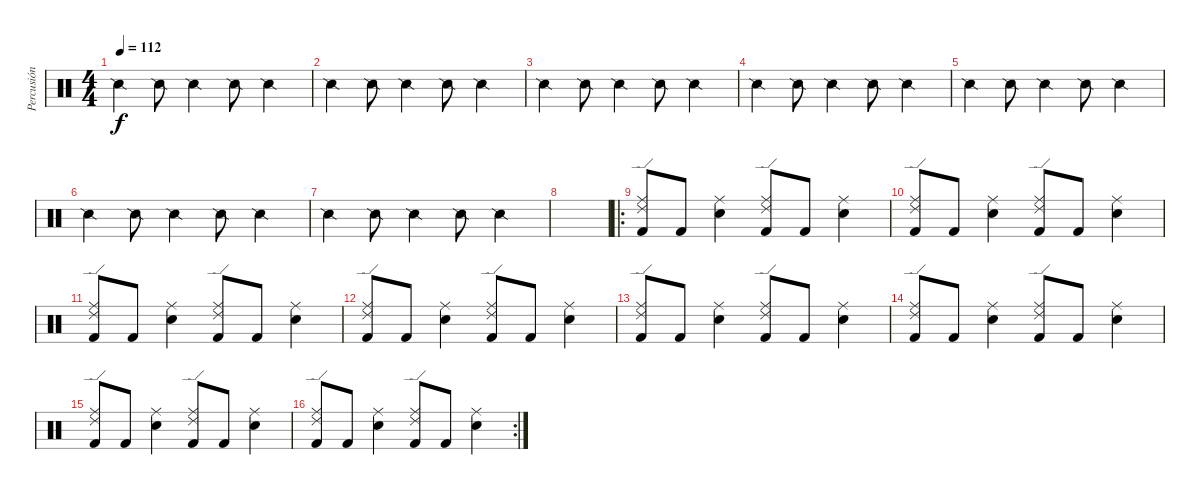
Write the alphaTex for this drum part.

\track ("Percusión" "Percusión") {instrument percussion}
\staff {score}
\articulation defaults
\ts (4 4)
\tempo 112
\clef neutral
\ks c "Snare (side stick) 2".4{dy f} "Snare (side stick) 2".8 "Snare (side stick) 2".4 "Snare (side stick) 2".8 "Snare (side stick) 2".4
|
"Snare (side stick) 2".4 "Snare (side stick) 2".8 "Snare (side stick) 2".4 "Snare (side stick) 2".8 "Snare (side stick) 2".4 |
"Snare (side stick) 2".4 "Snare (side stick) 2".8 "Snare (side stick) 2".4 "Snare (side stick) 2".8 "Snare (side stick) 2".4 |
"Snare (side stick) 2".4 "Snare (side stick) 2".8 "Snare (side stick) 2".4 "Snare (side stick) 2".8 "Snare (side stick) 2".4 |
"Snare (side stick) 2".4 "Snare (side stick) 2".8 "Snare (side stick) 2".4 "Snare (side stick) 2".8 "Snare (side stick) 2".4 |
"Snare (side stick) 2".4 "Snare (side stick) 2".8 "Snare (side stick) 2".4 "Snare (side stick) 2".8 "Snare (side stick) 2".4 |
"Snare (side stick) 2".4 "Snare (side stick) 2".8 "Snare (side stick) 2".4 "Snare (side stick) 2".8 "Snare (side stick) 2".4 |
|
\ro
("Ride (edge) 2" "Ride (middle)" "Kick (hit) 2").8 "Kick (hit) 2".8 ("Ride (middle)" "Snare (hit) 2").4 ("Ride (edge) 2" "Ride (middle)" "Kick (hit) 2").8 "Kick (hit) 2".8 ("Ride (middle)" "Snare (hit) 2").4 |
("Ride (edge) 2" "Ride (middle)" "Kick (hit) 2").8 "Kick (hit) 2".8 ("Ride (middle)" "Snare (hit) 2").4 ("Ride (edge) 2" "Ride (middle)" "Kick (hit) 2").8 "Kick (hit) 2".8 ("Ride (middle)" "Snare (hit) 2").4 |
("Ride (edge) 2" "Ride (middle)" "Kick (hit) 2").8 "Kick (hit) 2".8 ("Ride (middle)" "Snare (hit) 2").4 ("Ride (edge) 2" "Ride (middle)" "Kick (hit) 2").8 "Kick (hit) 2".8 ("Ride (middle)" "Snare (hit) 2").4 |
("Ride (edge) 2" "Ride (middle)" "Kick (hit) 2").8 "Kick (hit) 2".8 ("Ride (middle)" "Snare (hit) 2").4 ("Ride (edge) 2" "Ride (middle)" "Kick (hit) 2").8 "Kick (hit) 2".8 ("Ride (middle)" "Snare (hit) 2").4 |
("Ride (edge) 2" "Ride (middle)" "Kick (hit) 2").8 "Kick (hit) 2".8 ("Ride (middle)" "Snare (hit) 2").4 ("Ride (edge) 2" "Ride (middle)" "Kick (hit) 2").8 "Kick (hit) 2".8 ("Ride (middle)" "Snare (hit) 2").4 |
("Ride (edge) 2" "Ride (middle)" "Kick (hit) 2").8 "Kick (hit) 2".8 ("Ride (middle)" "Snare (hit) 2").4 ("Ride (edge) 2" "Ride (middle)" "Kick (hit) 2").8 "Kick (hit) 2".8 ("Ride (middle)" "Snare (hit) 2").4 |
("Ride (edge) 2" "Ride (middle)" "Kick (hit) 2").8 "Kick (hit) 2".8 ("Ride (middle)" "Snare (hit) 2").4 ("Ride (edge) 2" "Ride (middle)" "Kick (hit) 2").8 "Kick (hit) 2".8 ("Ride (middle)" "Snare (hit) 2").4 |
\rc 2
("Ride (edge) 2" "Ride (middle)" "Kick (hit) 2").8 "Kick (hit) 2".8 ("Ride (middle)" "Snare (hit) 2").4 ("Ride (edge) 2" "Ride (middle)" "Kick (hit) 2").8 "Kick (hit) 2".8 ("Ride (middle)" "Snare (hit) 2").4
